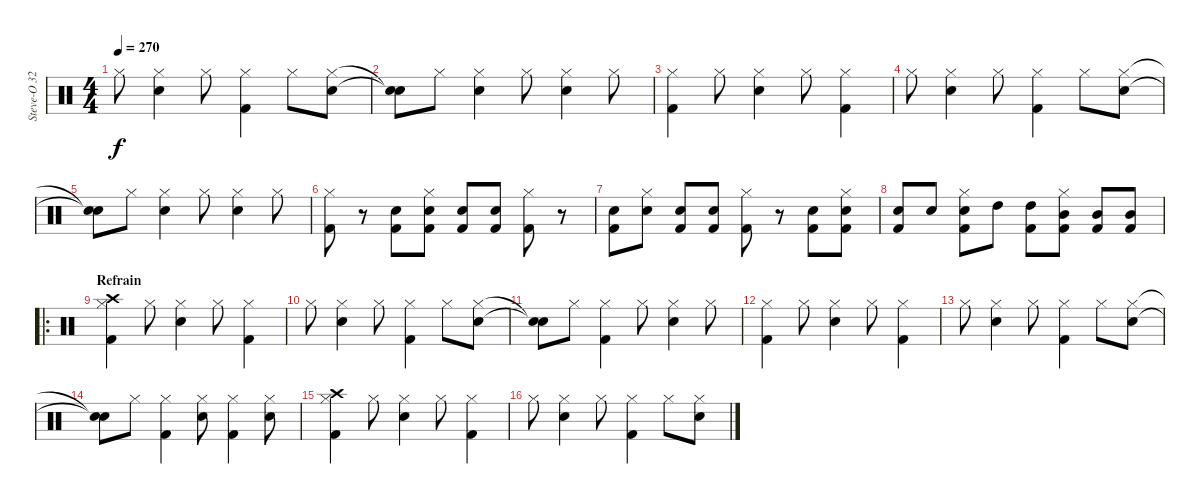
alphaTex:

\track ("Steve-O 32" "Steve-O 32") {instrument percussion}
\staff {score}
\articulation defaults
\ts (4 4)
\tempo 270
\clef neutral
\ks c "Hi-Hat (closed)".8{dy f}
("Electric Snare (hit)" "Hi-Hat (closed)").4 "Hi-Hat (closed)".8 ("Kick (hit) 2" "Hi-Hat (closed)").4 "Hi-Hat (closed)".8 ("Electric Snare (hit)" "Hi-Hat (closed)").8 |
("Snare (hit)"{t} "Snare (hit)"{t}).8 "Hi-Hat (closed)".8 ("Electric Snare (hit)" "Hi-Hat (closed)").4 "Hi-Hat (closed)".8 ("Electric Snare (hit)" "Hi-Hat (closed)").4 "Hi-Hat (closed)".8 |
("Hi-Hat (closed)" "Kick (hit) 2").4 "Hi-Hat (closed)".8 ("Electric Snare (hit)" "Hi-Hat (closed)").4 "Hi-Hat (closed)".8 ("Kick (hit) 2" "Hi-Hat (closed)").4 |
"Hi-Hat (closed)".8 ("Electric Snare (hit)" "Hi-Hat (closed)").4 "Hi-Hat (closed)".8 ("Kick (hit) 2" "Hi-Hat (closed)").4 "Hi-Hat (closed)".8 ("Electric Snare (hit)" "Hi-Hat (closed)").8 |
("Snare (hit)"{t} "Snare (hit)"{t}).8 "Hi-Hat (closed)".8 ("Electric Snare (hit)" "Hi-Hat (closed)").4 "Hi-Hat (closed)".8 ("Electric Snare (hit)" "Hi-Hat (closed)").4 "Hi-Hat (closed)".8 |
("Hi-Hat (closed)" "Kick (hit) 2").8 r.8 ("Electric Snare (hit)" "Kick (hit) 2").8 ("Electric Snare (hit)" "Hi-Hat (closed)" "Kick (hit) 2").8 ("Electric Snare (hit)" "Kick (hit) 2").8 ("Electric Snare (hit)" "Kick (hit) 2").8 ("Hi-Hat (closed)" "Kick (hit) 2").8 r.8 |
("Electric Snare (hit)" "Kick (hit) 2").8 ("Electric Snare (hit)" "Hi-Hat (closed)").8 ("Electric Snare (hit)" "Kick (hit) 2").8 ("Electric Snare (hit)" "Kick (hit) 2").8 ("Hi-Hat (closed)" "Kick (hit) 2").8 r.8 ("Electric Snare (hit)" "Kick (hit) 2").8 ("Electric Snare (hit)" "Hi-Hat (closed)" "Kick (hit) 2").8 |
("Electric Snare (hit)" "Kick (hit) 2").8 "Electric Snare (hit)".8 ("Electric Snare (hit)" "Hi-Hat (closed)" "Kick (hit) 2").8 "High Tom (hit)".8 ("High Tom (hit)" "Kick (hit) 2").8 ("Mid Tom (hit)" "Hi-Hat (closed)" "Kick (hit) 2").8 ("Mid Tom (hit)" "Kick (hit) 2").8 ("Mid Tom (hit)" "Kick (hit) 2").8 |
\ro
\section ("" "Refrain")
("Crash high (hit)" "Hi-Hat (closed)" "Kick (hit) 2").4 "Hi-Hat (closed)".8 ("Electric Snare (hit)" "Hi-Hat (closed)").4 "Hi-Hat (closed)".8 ("Kick (hit) 2" "Hi-Hat (closed)").4 |
"Hi-Hat (closed)".8 ("Electric Snare (hit)" "Hi-Hat (closed)").4 "Hi-Hat (closed)".8 ("Kick (hit) 2" "Hi-Hat (closed)").4 "Hi-Hat (closed)".8 ("Electric Snare (hit)" "Hi-Hat (closed)").8 |
("Snare (hit)"{t} "Snare (hit)"{t}).8 "Hi-Hat (closed)".8 ("Kick (hit) 2" "Hi-Hat (closed)").4 "Hi-Hat (closed)".8 ("Electric Snare (hit)" "Hi-Hat (closed)").4 "Hi-Hat (closed)".8 |
("Hi-Hat (closed)" "Kick (hit) 2").4 "Hi-Hat (closed)".8 ("Electric Snare (hit)" "Hi-Hat (closed)").4 "Hi-Hat (closed)".8 ("Kick (hit) 2" "Hi-Hat (closed)").4 |
"Hi-Hat (closed)".8 ("Electric Snare (hit)" "Hi-Hat (closed)").4 "Hi-Hat (closed)".8 ("Kick (hit) 2" "Hi-Hat (closed)").4 "Hi-Hat (closed)".8 ("Electric Snare (hit)" "Hi-Hat (closed)").8 |
("Snare (hit)"{t} "Snare (hit)"{t}).8 "Hi-Hat (closed)".8 ("Kick (hit) 2" "Hi-Hat (closed)").4 ("Electric Snare (hit)" "Hi-Hat (closed)").8 ("Kick (hit) 2" "Hi-Hat (closed)").4 ("Electric Snare (hit)" "Hi-Hat (closed)").8 |
("Crash high (hit)" "Hi-Hat (closed)" "Kick (hit) 2").4 "Hi-Hat (closed)".8 ("Electric Snare (hit)" "Hi-Hat (closed)").4 "Hi-Hat (closed)".8 ("Kick (hit) 2" "Hi-Hat (closed)").4 |
"Hi-Hat (closed)".8 ("Electric Snare (hit)" "Hi-Hat (closed)").4 "Hi-Hat (closed)".8 ("Kick (hit) 2" "Hi-Hat (closed)").4 "Hi-Hat (closed)".8 ("Electric Snare (hit)" "Hi-Hat (closed)").8
